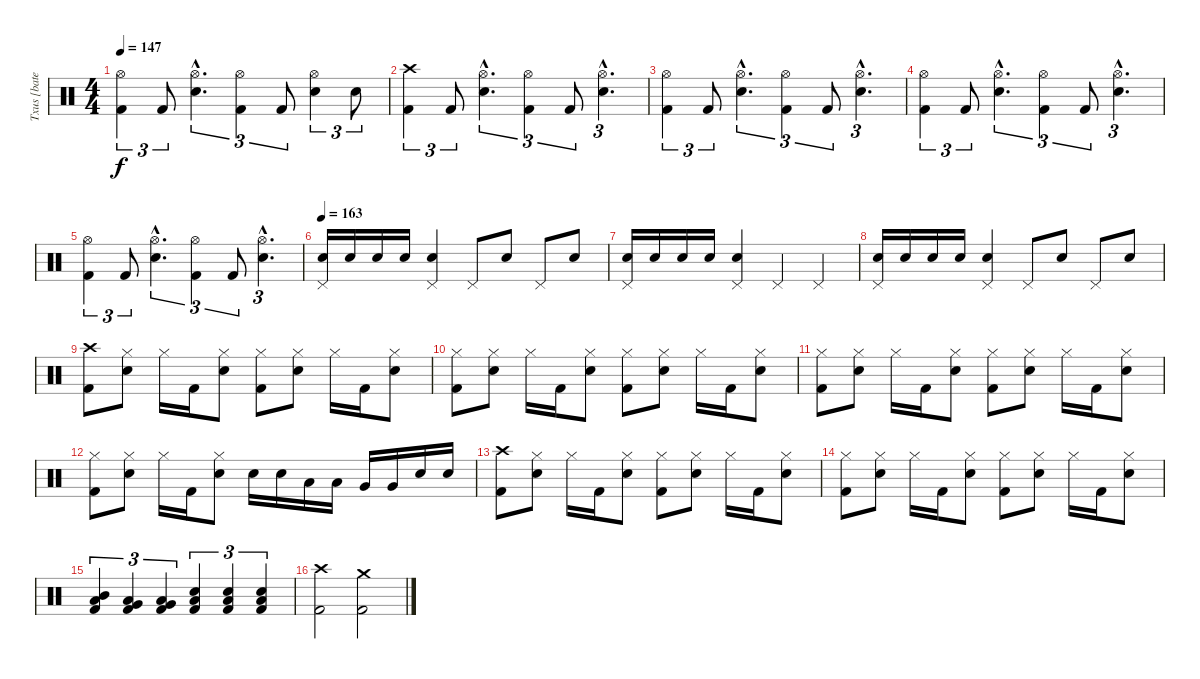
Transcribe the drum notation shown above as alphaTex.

\track ("Txus [bateria]" "Txus [bate") {instrument percussion}
\staff {score}
\articulation defaults
\ts (4 4)
\tempo 147
\clef neutral
\ks c
("Hi-Hat (open)" "Kick (hit) 2").4{tu (3 2) dy f} "Kick (hit) 2".8{tu (3 2)} ("Hi-Hat (open)"{hac} "Snare (hit) 2"{hac}).4{d tu (3 2)} ("Hi-Hat (open)" "Kick (hit) 2").4{tu (3 2)} "Kick (hit) 2".8{tu (3 2)} ("Hi-Hat (open)" "Snare (hit) 2").4{tu (3 2)} "Snare (hit) 2".8{tu (3 2)} |
("Crash high (hit)" "Kick (hit) 2").4{tu (3 2)} "Kick (hit) 2".8{tu (3 2)} ("Hi-Hat (open)"{hac} "Snare (hit) 2"{hac}).4{d tu (3 2)} ("Hi-Hat (open)" "Kick (hit) 2").4{tu (3 2)} "Kick (hit) 2".8{tu (3 2)} ("Hi-Hat (open)"{hac} "Snare (hit) 2"{hac}).4{d tu (3 2)} |
("Hi-Hat (open)" "Kick (hit) 2").4{tu (3 2)} "Kick (hit) 2".8{tu (3 2)} ("Hi-Hat (open)"{hac} "Snare (hit) 2"{hac}).4{d tu (3 2)} ("Hi-Hat (open)" "Kick (hit) 2").4{tu (3 2)} "Kick (hit) 2".8{tu (3 2)} ("Hi-Hat (open)"{hac} "Snare (hit) 2"{hac}).4{d tu (3 2)} |
("Hi-Hat (open)" "Kick (hit) 2").4{tu (3 2)} "Kick (hit) 2".8{tu (3 2)} ("Hi-Hat (open)"{hac} "Snare (hit) 2"{hac}).4{d tu (3 2)} ("Hi-Hat (open)" "Kick (hit) 2").4{tu (3 2)} "Kick (hit) 2".8{tu (3 2)} ("Hi-Hat (open)"{hac} "Snare (hit) 2"{hac}).4{d tu (3 2)} |
("Hi-Hat (open)" "Kick (hit) 2").4{tu (3 2)} "Kick (hit) 2".8{tu (3 2)} ("Hi-Hat (open)"{hac} "Snare (hit) 2"{hac}).4{d tu (3 2)} ("Hi-Hat (open)" "Kick (hit) 2").4{tu (3 2)} "Kick (hit) 2".8{tu (3 2)} ("Hi-Hat (open)"{hac} "Snare (hit) 2"{hac}).4{d tu (3 2)} |
\tempo 163
("Pedal Hi-Hat (hit)" "Snare (hit) 2").16 "Snare (hit) 2".16 "Snare (hit) 2".16 "Snare (hit) 2".16 ("Pedal Hi-Hat (hit)" "Snare (hit) 2").4 "Pedal Hi-Hat (hit)".8 "Snare (hit) 2".8 "Pedal Hi-Hat (hit)".8 "Snare (hit) 2".8 |
("Pedal Hi-Hat (hit)" "Snare (hit) 2").16 "Snare (hit) 2".16 "Snare (hit) 2".16 "Snare (hit) 2".16 ("Pedal Hi-Hat (hit)" "Snare (hit) 2").4 "Pedal Hi-Hat (hit)".4 "Pedal Hi-Hat (hit)".4 |
("Pedal Hi-Hat (hit)" "Snare (hit) 2").16 "Snare (hit) 2".16 "Snare (hit) 2".16 "Snare (hit) 2".16 ("Pedal Hi-Hat (hit)" "Snare (hit) 2").4 "Pedal Hi-Hat (hit)".8 "Snare (hit) 2".8 "Pedal Hi-Hat (hit)".8 "Snare (hit) 2".8 |
("Crash high (hit)" "Kick (hit) 2").8 ("Hi-Hat (closed)" "Snare (hit) 2").8 "Hi-Hat (closed)".16 "Kick (hit) 2".16 ("Hi-Hat (closed)" "Snare (hit) 2").8 ("Hi-Hat (closed)" "Kick (hit) 2").8 ("Hi-Hat (closed)" "Snare (hit) 2").8 "Hi-Hat (closed)".16 "Kick (hit) 2".16 ("Hi-Hat (closed)" "Snare (hit) 2").8 |
("Hi-Hat (closed)" "Kick (hit) 2").8 ("Hi-Hat (closed)" "Snare (hit) 2").8 "Hi-Hat (closed)".16 "Kick (hit) 2".16 ("Hi-Hat (closed)" "Snare (hit) 2").8 ("Hi-Hat (closed)" "Kick (hit) 2").8 ("Hi-Hat (closed)" "Snare (hit) 2").8 "Hi-Hat (closed)".16 "Kick (hit) 2".16 ("Hi-Hat (closed)" "Snare (hit) 2").8 |
("Hi-Hat (closed)" "Kick (hit) 2").8 ("Hi-Hat (closed)" "Snare (hit) 2").8 "Hi-Hat (closed)".16 "Kick (hit) 2".16 ("Hi-Hat (closed)" "Snare (hit) 2").8 ("Hi-Hat (closed)" "Kick (hit) 2").8 ("Hi-Hat (closed)" "Snare (hit) 2").8 "Hi-Hat (closed)".16 "Kick (hit) 2".16 ("Hi-Hat (closed)" "Snare (hit) 2").8 |
("Hi-Hat (closed)" "Kick (hit) 2").8 ("Hi-Hat (closed)" "Snare (hit) 2").8 "Hi-Hat (closed)".16 "Kick (hit) 2".16 ("Hi-Hat (closed)" "Snare (hit) 2").8 "Snare (hit) 2".16 "Snare (hit) 2".16 "Low Tom (hit)".16 "Low Tom (hit)".16 "Very Low Tom (hit)".16 "Very Low Tom (hit)".16 "Snare (hit) 2".16 "Snare (hit) 2".16 |
("Crash high (hit)" "Kick (hit) 2").8 ("Hi-Hat (closed)" "Snare (hit) 2").8 "Hi-Hat (closed)".16 "Kick (hit) 2".16 ("Hi-Hat (closed)" "Snare (hit) 2").8 ("Hi-Hat (closed)" "Kick (hit) 2").8 ("Hi-Hat (closed)" "Snare (hit) 2").8 "Hi-Hat (closed)".16 "Kick (hit) 2".16 ("Hi-Hat (closed)" "Snare (hit) 2").8 |
("Hi-Hat (closed)" "Kick (hit) 2").8 ("Hi-Hat (closed)" "Snare (hit) 2").8 "Hi-Hat (closed)".16 "Kick (hit) 2".16 ("Hi-Hat (closed)" "Snare (hit) 2").8 ("Hi-Hat (closed)" "Kick (hit) 2").8 ("Hi-Hat (closed)" "Snare (hit) 2").8 "Hi-Hat (closed)".16 "Kick (hit) 2".16 ("Hi-Hat (closed)" "Snare (hit) 2").8 |
("Mid Tom (hit)" "Low Tom (hit)" "Kick (hit) 2").4{tu (3 2)} ("Low Tom (hit)" "Very Low Tom (hit)" "Kick (hit) 2").4{tu (3 2)} ("Very Low Tom (hit)" "Low Floor Tom (hit)" "Kick (hit) 2").4{tu (3 2)} ("Snare (hit) 2" "Low Floor Tom (hit)" "Kick (hit) 2").4{tu (3 2)} ("Snare (hit) 2" "Low Floor Tom (hit)" "Kick (hit) 2").4{tu (3 2)} ("Snare (hit) 2" "Low Floor Tom (hit)" "Kick (hit) 2").4{tu (3 2)} |
("Crash high (hit)" "Kick (hit) 2").2 ("Crash medium (hit)" "Kick (hit) 2").2
